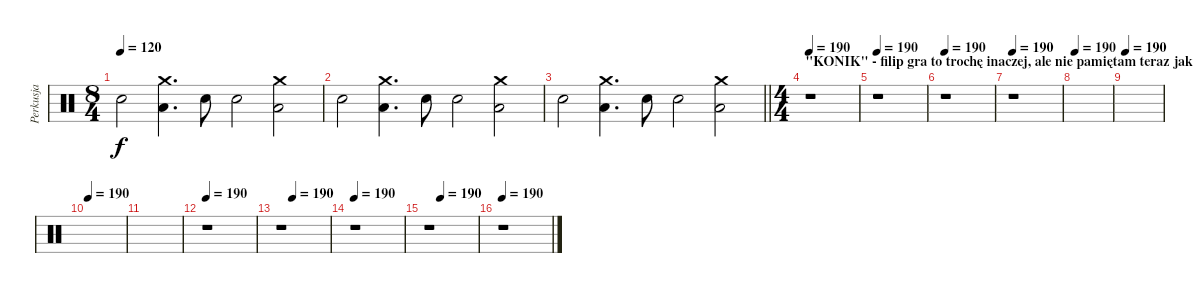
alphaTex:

\track ("Perkusja" "Perkusja") {instrument percussion}
\staff {score}
\articulation defaults
\ts (8 4)
\tempo 120
\clef neutral
\ks c "Snare (hit) 2".2{dy f}
("Crash medium (hit)" "Low Tom (hit)").4{d} "Snare (hit) 2".8 "Snare (hit) 2".2 ("Crash medium (hit)" "Low Tom (hit)").2 |
"Snare (hit) 2".2 ("Crash medium (hit)" "Low Tom (hit)").4{d} "Snare (hit) 2".8 "Snare (hit) 2".2 ("Crash medium (hit)" "Low Tom (hit)").2 |
\barLineRight lightlight "Snare (hit) 2".2
("Crash medium (hit)" "Low Tom (hit)").4{d} "Snare (hit) 2".8 "Snare (hit) 2".2 ("Crash medium (hit)" "Low Tom (hit)").2 |
\ts (4 4)
\section ("" "\"KONIK\" - filip gra to trochę inaczej, ale nie pamiętam teraz jak")
\tempo 190
r.1 |
\tempo 190
r.1 |
\tempo 190
r.1 |
\tempo 190
r.1 |
\tempo 190
|
\tempo 190
|
\tempo 190
|
|
\tempo 190
r.1 |
\tempo (190 0.25)
r.1 |
\tempo 190
r.1 |
\tempo (190 0.25)
r.1 |
\tempo 190
r.1
